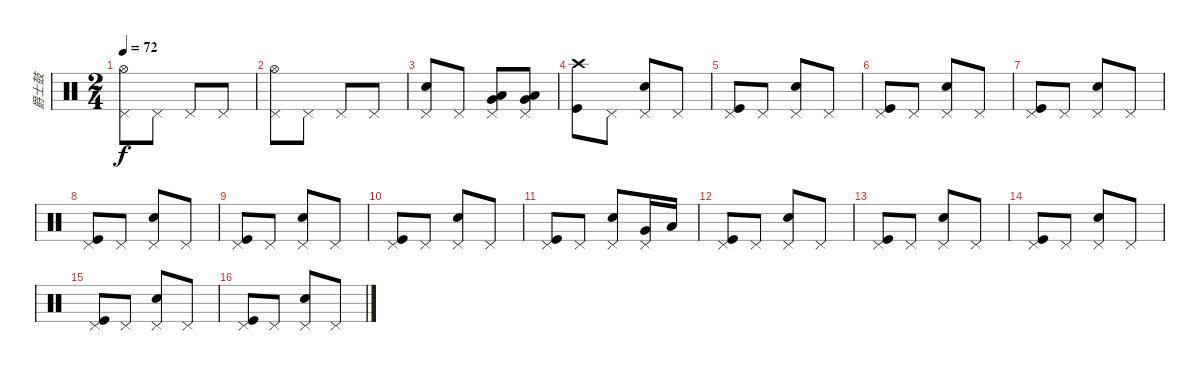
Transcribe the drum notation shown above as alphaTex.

\track ("爵士鼓" "爵士鼓") {instrument percussion}
\staff {score}
\articulation defaults
\ts (2 4)
\tempo 72
\clef neutral
\ks c
("Pedal Hi-Hat (hit)" "Hi-Hat (open)").8{dy f} "Pedal Hi-Hat (hit)".8 "Pedal Hi-Hat (hit)".8 "Pedal Hi-Hat (hit)".8 |
("Pedal Hi-Hat (hit)" "Hi-Hat (open)").8 "Pedal Hi-Hat (hit)".8 "Pedal Hi-Hat (hit)".8 "Pedal Hi-Hat (hit)".8 |
("Pedal Hi-Hat (hit)" "Electric Snare (hit)").8 "Pedal Hi-Hat (hit)".8 ("Pedal Hi-Hat (hit)" "Low Tom (hit)" "Very Low Tom (hit)").8 ("Pedal Hi-Hat (hit)" "Very Low Tom (hit)" "Low Floor Tom (hit)").8 |
("Crash high (hit)" "Kick (hit)").8 "Pedal Hi-Hat (hit)".8 ("Pedal Hi-Hat (hit)" "Electric Snare (hit)").8 "Pedal Hi-Hat (hit)".8 |
("Pedal Hi-Hat (hit)" "Kick (hit)").8 "Pedal Hi-Hat (hit)".8 ("Pedal Hi-Hat (hit)" "Electric Snare (hit)").8 "Pedal Hi-Hat (hit)".8 |
("Pedal Hi-Hat (hit)" "Kick (hit)").8 "Pedal Hi-Hat (hit)".8 ("Pedal Hi-Hat (hit)" "Electric Snare (hit)").8 "Pedal Hi-Hat (hit)".8 |
("Pedal Hi-Hat (hit)" "Kick (hit)").8 "Pedal Hi-Hat (hit)".8 ("Pedal Hi-Hat (hit)" "Electric Snare (hit)").8 "Pedal Hi-Hat (hit)".8 |
("Pedal Hi-Hat (hit)" "Kick (hit)").8 "Pedal Hi-Hat (hit)".8 ("Pedal Hi-Hat (hit)" "Electric Snare (hit)").8 "Pedal Hi-Hat (hit)".8 |
("Pedal Hi-Hat (hit)" "Kick (hit)").8 "Pedal Hi-Hat (hit)".8 ("Pedal Hi-Hat (hit)" "Electric Snare (hit)").8 "Pedal Hi-Hat (hit)".8 |
("Pedal Hi-Hat (hit)" "Kick (hit)").8 "Pedal Hi-Hat (hit)".8 ("Pedal Hi-Hat (hit)" "Electric Snare (hit)").8 "Pedal Hi-Hat (hit)".8 |
("Pedal Hi-Hat (hit)" "Kick (hit)").8 "Pedal Hi-Hat (hit)".8 ("Pedal Hi-Hat (hit)" "Electric Snare (hit)").8 ("Pedal Hi-Hat (hit)" "Very Low Tom (hit)").16 "Low Floor Tom (hit)".16 |
("Pedal Hi-Hat (hit)" "Kick (hit)").8 "Pedal Hi-Hat (hit)".8 ("Pedal Hi-Hat (hit)" "Electric Snare (hit)").8 "Pedal Hi-Hat (hit)".8 |
("Pedal Hi-Hat (hit)" "Kick (hit)").8 "Pedal Hi-Hat (hit)".8 ("Pedal Hi-Hat (hit)" "Electric Snare (hit)").8 "Pedal Hi-Hat (hit)".8 |
("Pedal Hi-Hat (hit)" "Kick (hit)").8 "Pedal Hi-Hat (hit)".8 ("Pedal Hi-Hat (hit)" "Electric Snare (hit)").8 "Pedal Hi-Hat (hit)".8 |
("Pedal Hi-Hat (hit)" "Kick (hit)").8 "Pedal Hi-Hat (hit)".8 ("Pedal Hi-Hat (hit)" "Electric Snare (hit)").8 "Pedal Hi-Hat (hit)".8 |
("Pedal Hi-Hat (hit)" "Kick (hit)").8 "Pedal Hi-Hat (hit)".8 ("Pedal Hi-Hat (hit)" "Electric Snare (hit)").8 "Pedal Hi-Hat (hit)".8
